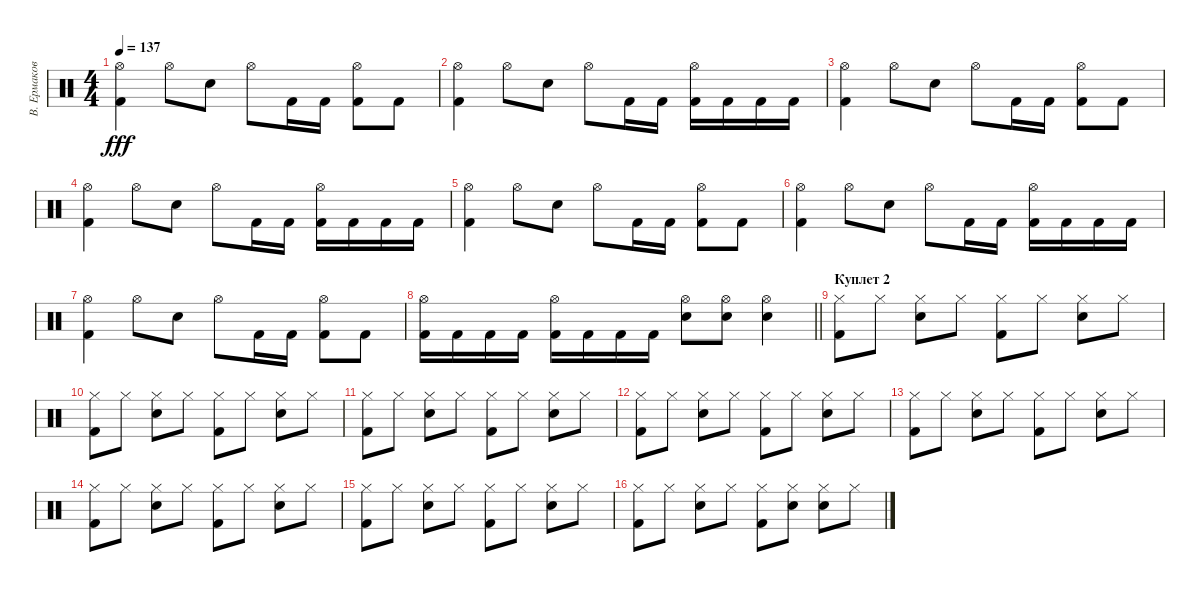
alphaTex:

\track ("В. Ермаков" "В. Ермаков") {instrument percussion}
\staff {score}
\articulation defaults
\ts (4 4)
\tempo 137
\clef neutral
\ks c
("Hi-Hat (open)" "Kick (hit) 2").4{dy fff} "Hi-Hat (open)".8 "Snare (hit) 2".8 "Hi-Hat (open)".8 "Kick (hit) 2".16 "Kick (hit) 2".16 ("Hi-Hat (open)" "Kick (hit) 2").8 "Kick (hit) 2".8 |
("Hi-Hat (open)" "Kick (hit) 2").4 "Hi-Hat (open)".8 "Snare (hit) 2".8 "Hi-Hat (open)".8 "Kick (hit) 2".16 "Kick (hit) 2".16 ("Hi-Hat (open)" "Kick (hit) 2").16 "Kick (hit) 2".16 "Kick (hit) 2".16 "Kick (hit) 2".16 |
("Hi-Hat (open)" "Kick (hit) 2").4 "Hi-Hat (open)".8 "Snare (hit) 2".8 "Hi-Hat (open)".8 "Kick (hit) 2".16 "Kick (hit) 2".16 ("Hi-Hat (open)" "Kick (hit) 2").8 "Kick (hit) 2".8 |
("Hi-Hat (open)" "Kick (hit) 2").4 "Hi-Hat (open)".8 "Snare (hit) 2".8 "Hi-Hat (open)".8 "Kick (hit) 2".16 "Kick (hit) 2".16 ("Hi-Hat (open)" "Kick (hit) 2").16 "Kick (hit) 2".16 "Kick (hit) 2".16 "Kick (hit) 2".16 |
("Hi-Hat (open)" "Kick (hit) 2").4 "Hi-Hat (open)".8 "Snare (hit) 2".8 "Hi-Hat (open)".8 "Kick (hit) 2".16 "Kick (hit) 2".16 ("Hi-Hat (open)" "Kick (hit) 2").8 "Kick (hit) 2".8 |
("Hi-Hat (open)" "Kick (hit) 2").4 "Hi-Hat (open)".8 "Snare (hit) 2".8 "Hi-Hat (open)".8 "Kick (hit) 2".16 "Kick (hit) 2".16 ("Hi-Hat (open)" "Kick (hit) 2").16 "Kick (hit) 2".16 "Kick (hit) 2".16 "Kick (hit) 2".16 |
("Hi-Hat (open)" "Kick (hit) 2").4 "Hi-Hat (open)".8 "Snare (hit) 2".8 "Hi-Hat (open)".8 "Kick (hit) 2".16 "Kick (hit) 2".16 ("Hi-Hat (open)" "Kick (hit) 2").8 "Kick (hit) 2".8 |
\barLineRight lightlight
("Hi-Hat (open)" "Kick (hit) 2").16 "Kick (hit) 2".16 "Kick (hit) 2".16 "Kick (hit) 2".16 ("Hi-Hat (open)" "Kick (hit) 2").16 "Kick (hit) 2".16 "Kick (hit) 2".16 "Kick (hit) 2".16 ("Hi-Hat (open)" "Snare (hit) 2").8 ("Hi-Hat (open)" "Snare (hit) 2").8 ("Hi-Hat (open)" "Snare (hit) 2").4 |
\section ("" "Куплет 2")
("Hi-Hat (closed)" "Kick (hit) 2").8 "Hi-Hat (closed)".8 ("Hi-Hat (closed)" "Snare (hit) 2").8 "Hi-Hat (closed)".8 ("Hi-Hat (closed)" "Kick (hit) 2").8 "Hi-Hat (closed)".8 ("Hi-Hat (closed)" "Snare (hit) 2").8 "Hi-Hat (closed)".8 |
("Hi-Hat (closed)" "Kick (hit) 2").8 "Hi-Hat (closed)".8 ("Hi-Hat (closed)" "Snare (hit) 2").8 "Hi-Hat (closed)".8 ("Hi-Hat (closed)" "Kick (hit) 2").8 "Hi-Hat (closed)".8 ("Hi-Hat (closed)" "Snare (hit) 2").8 "Hi-Hat (closed)".8 |
("Hi-Hat (closed)" "Kick (hit) 2").8 "Hi-Hat (closed)".8 ("Hi-Hat (closed)" "Snare (hit) 2").8 "Hi-Hat (closed)".8 ("Hi-Hat (closed)" "Kick (hit) 2").8 "Hi-Hat (closed)".8 ("Hi-Hat (closed)" "Snare (hit) 2").8 "Hi-Hat (closed)".8 |
("Hi-Hat (closed)" "Kick (hit) 2").8 "Hi-Hat (closed)".8 ("Hi-Hat (closed)" "Snare (hit) 2").8 "Hi-Hat (closed)".8 ("Hi-Hat (closed)" "Kick (hit) 2").8 "Hi-Hat (closed)".8 ("Hi-Hat (closed)" "Snare (hit) 2").8 "Hi-Hat (closed)".8 |
("Hi-Hat (closed)" "Kick (hit) 2").8 "Hi-Hat (closed)".8 ("Hi-Hat (closed)" "Snare (hit) 2").8 "Hi-Hat (closed)".8 ("Hi-Hat (closed)" "Kick (hit) 2").8 "Hi-Hat (closed)".8 ("Hi-Hat (closed)" "Snare (hit) 2").8 "Hi-Hat (closed)".8 |
("Hi-Hat (closed)" "Kick (hit) 2").8 "Hi-Hat (closed)".8 ("Hi-Hat (closed)" "Snare (hit) 2").8 "Hi-Hat (closed)".8 ("Hi-Hat (closed)" "Kick (hit) 2").8 "Hi-Hat (closed)".8 ("Hi-Hat (closed)" "Snare (hit) 2").8 "Hi-Hat (closed)".8 |
("Hi-Hat (closed)" "Kick (hit) 2").8 "Hi-Hat (closed)".8 ("Hi-Hat (closed)" "Snare (hit) 2").8 "Hi-Hat (closed)".8 ("Hi-Hat (closed)" "Kick (hit) 2").8 "Hi-Hat (closed)".8 ("Hi-Hat (closed)" "Snare (hit) 2").8 "Hi-Hat (closed)".8 |
("Hi-Hat (closed)" "Kick (hit) 2").8 "Hi-Hat (closed)".8 ("Hi-Hat (closed)" "Snare (hit) 2").8 "Hi-Hat (closed)".8 ("Hi-Hat (closed)" "Kick (hit) 2").8 ("Hi-Hat (closed)" "Snare (hit) 2").8 ("Hi-Hat (closed)" "Snare (hit) 2").8 "Hi-Hat (closed)".8
